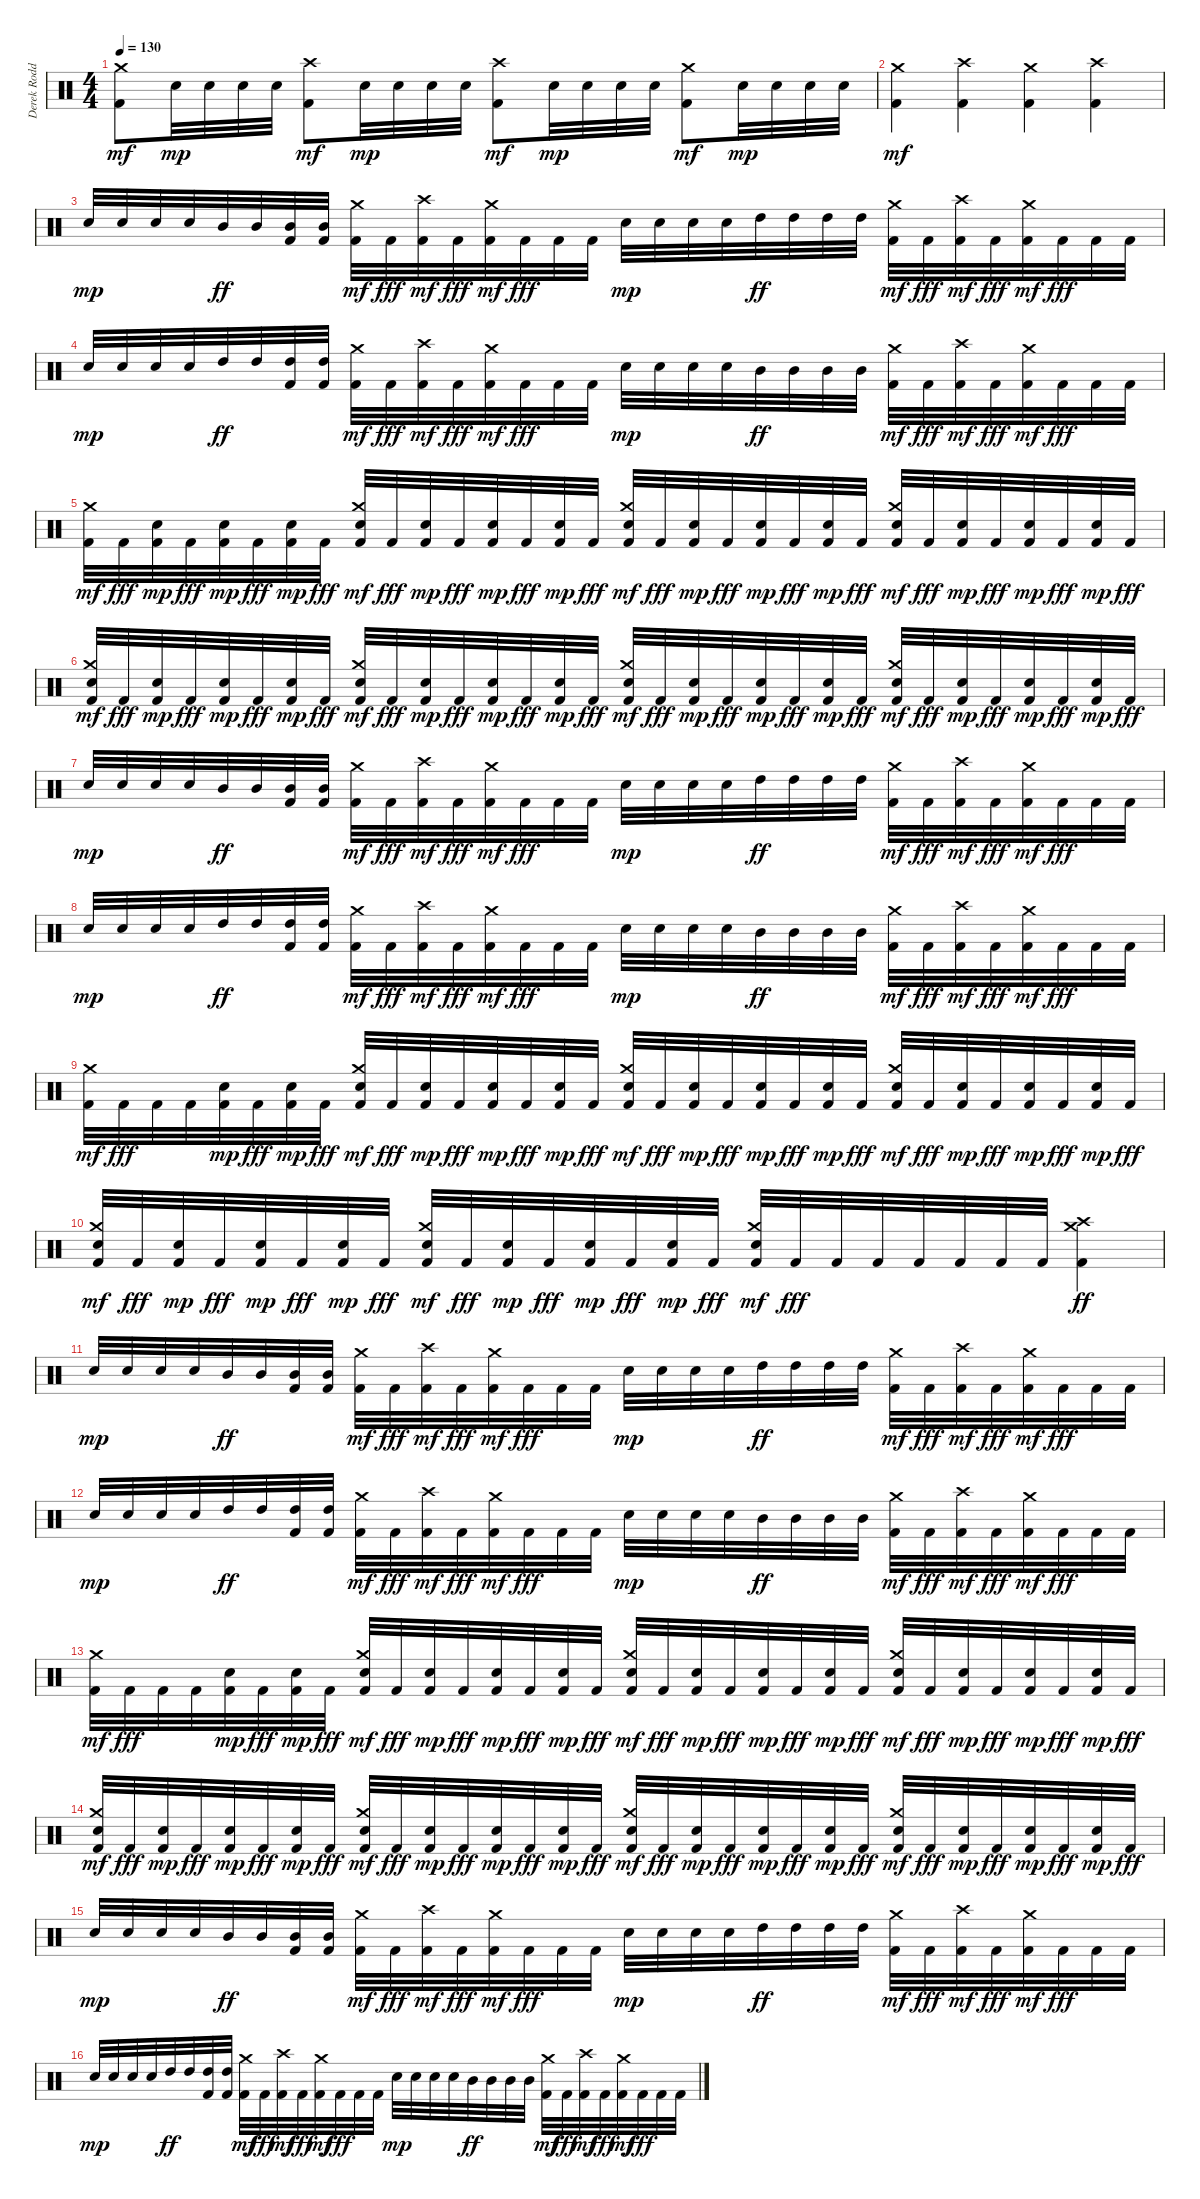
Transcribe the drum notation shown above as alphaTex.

\track ("Derek Roddy" "Derek Rodd") {instrument percussion}
\staff {score}
\articulation defaults
\ts (4 4)
\tempo 130
\clef neutral
\ks c
("Kick (hit) 2" "Crash medium (hit)").8{dy mf} "Electric Snare (hit)".32{dy mp} "Electric Snare (hit)".32 "Electric Snare (hit)".32 "Electric Snare (hit)".32 ("Kick (hit) 2" "Crash high (hit)").8{dy mf} "Electric Snare (hit)".32{dy mp} "Electric Snare (hit)".32 "Electric Snare (hit)".32 "Electric Snare (hit)".32 ("Kick (hit) 2" "Crash high (hit)").8{dy mf} "Electric Snare (hit)".32{dy mp} "Electric Snare (hit)".32 "Electric Snare (hit)".32 "Electric Snare (hit)".32 ("Kick (hit) 2" "Crash medium (hit)").8{dy mf} "Electric Snare (hit)".32{dy mp} "Electric Snare (hit)".32 "Electric Snare (hit)".32 "Electric Snare (hit)".32 |
("Kick (hit) 2" "Crash medium (hit)").4{dy mf} ("Kick (hit) 2" "Crash high (hit)").4 ("Kick (hit) 2" "Crash medium (hit)").4 ("Kick (hit) 2" "Crash high (hit)").4 |
"Electric Snare (hit)".32{dy mp} "Electric Snare (hit)".32 "Electric Snare (hit)".32 "Electric Snare (hit)".32 "Mid Tom (hit)".32{dy ff} "Mid Tom (hit)".32 ("Kick (hit) 2" "Mid Tom (hit)").32 ("Kick (hit) 2" "Mid Tom (hit)").32 ("Kick (hit) 2" "Crash medium (hit)").32{dy mf} "Kick (hit) 2".32{dy fff} ("Kick (hit) 2" "Crash high (hit)").32{dy mf} "Kick (hit) 2".32{dy fff} ("Kick (hit) 2" "Crash medium (hit)").32{dy mf} "Kick (hit) 2".32{dy fff} "Kick (hit) 2".32 "Kick (hit) 2".32 "Electric Snare (hit)".32{dy mp} "Electric Snare (hit)".32 "Electric Snare (hit)".32 "Electric Snare (hit)".32 "High Tom (hit)".32{dy ff} "High Tom (hit)".32 "High Tom (hit)".32 "High Tom (hit)".32 ("Kick (hit) 2" "Crash medium (hit)").32{dy mf} "Kick (hit) 2".32{dy fff} ("Kick (hit) 2" "Crash high (hit)").32{dy mf} "Kick (hit) 2".32{dy fff} ("Kick (hit) 2" "Crash medium (hit)").32{dy mf} "Kick (hit) 2".32{dy fff} "Kick (hit) 2".32 "Kick (hit) 2".32 |
"Electric Snare (hit)".32{dy mp} "Electric Snare (hit)".32 "Electric Snare (hit)".32 "Electric Snare (hit)".32 "High Tom (hit)".32{dy ff} "High Tom (hit)".32 ("Kick (hit) 2" "High Tom (hit)").32 ("Kick (hit) 2" "High Tom (hit)").32 ("Kick (hit) 2" "Crash medium (hit)").32{dy mf} "Kick (hit) 2".32{dy fff} ("Kick (hit) 2" "Crash high (hit)").32{dy mf} "Kick (hit) 2".32{dy fff} ("Kick (hit) 2" "Crash medium (hit)").32{dy mf} "Kick (hit) 2".32{dy fff} "Kick (hit) 2".32 "Kick (hit) 2".32 "Electric Snare (hit)".32{dy mp} "Electric Snare (hit)".32 "Electric Snare (hit)".32 "Electric Snare (hit)".32 "Mid Tom (hit)".32{dy ff} "Mid Tom (hit)".32 "Mid Tom (hit)".32 "Mid Tom (hit)".32 ("Kick (hit) 2" "Crash medium (hit)").32{dy mf} "Kick (hit) 2".32{dy fff} ("Kick (hit) 2" "Crash high (hit)").32{dy mf} "Kick (hit) 2".32{dy fff} ("Kick (hit) 2" "Crash medium (hit)").32{dy mf} "Kick (hit) 2".32{dy fff} "Kick (hit) 2".32 "Kick (hit) 2".32 |
("Kick (hit) 2" "Crash medium (hit)").32{dy mf} "Kick (hit) 2".32{dy fff} ("Kick (hit) 2" "Electric Snare (hit)").32{dy mp} "Kick (hit) 2".32{dy fff} ("Kick (hit) 2" "Electric Snare (hit)").32{dy mp} "Kick (hit) 2".32{dy fff} ("Kick (hit) 2" "Electric Snare (hit)").32{dy mp} "Kick (hit) 2".32{dy fff} ("Kick (hit) 2" "Electric Snare (hit)" "Crash medium (hit)").32{dy mf} "Kick (hit) 2".32{dy fff} ("Kick (hit) 2" "Electric Snare (hit)").32{dy mp} "Kick (hit) 2".32{dy fff} ("Kick (hit) 2" "Electric Snare (hit)").32{dy mp} "Kick (hit) 2".32{dy fff} ("Kick (hit) 2" "Electric Snare (hit)").32{dy mp} "Kick (hit) 2".32{dy fff} ("Kick (hit) 2" "Electric Snare (hit)" "Crash medium (hit)").32{dy mf} "Kick (hit) 2".32{dy fff} ("Kick (hit) 2" "Electric Snare (hit)").32{dy mp} "Kick (hit) 2".32{dy fff} ("Kick (hit) 2" "Electric Snare (hit)").32{dy mp} "Kick (hit) 2".32{dy fff} ("Kick (hit) 2" "Electric Snare (hit)").32{dy mp} "Kick (hit) 2".32{dy fff} ("Kick (hit) 2" "Electric Snare (hit)" "Crash medium (hit)").32{dy mf} "Kick (hit) 2".32{dy fff} ("Kick (hit) 2" "Electric Snare (hit)").32{dy mp} "Kick (hit) 2".32{dy fff} ("Kick (hit) 2" "Electric Snare (hit)").32{dy mp} "Kick (hit) 2".32{dy fff} ("Kick (hit) 2" "Electric Snare (hit)").32{dy mp} "Kick (hit) 2".32{dy fff} |
("Kick (hit) 2" "Electric Snare (hit)" "Crash medium (hit)").32{dy mf} "Kick (hit) 2".32{dy fff} ("Kick (hit) 2" "Electric Snare (hit)").32{dy mp} "Kick (hit) 2".32{dy fff} ("Kick (hit) 2" "Electric Snare (hit)").32{dy mp} "Kick (hit) 2".32{dy fff} ("Kick (hit) 2" "Electric Snare (hit)").32{dy mp} "Kick (hit) 2".32{dy fff} ("Kick (hit) 2" "Electric Snare (hit)" "Crash medium (hit)").32{dy mf} "Kick (hit) 2".32{dy fff} ("Kick (hit) 2" "Electric Snare (hit)").32{dy mp} "Kick (hit) 2".32{dy fff} ("Kick (hit) 2" "Electric Snare (hit)").32{dy mp} "Kick (hit) 2".32{dy fff} ("Kick (hit) 2" "Electric Snare (hit)").32{dy mp} "Kick (hit) 2".32{dy fff} ("Kick (hit) 2" "Electric Snare (hit)" "Crash medium (hit)").32{dy mf} "Kick (hit) 2".32{dy fff} ("Kick (hit) 2" "Electric Snare (hit)").32{dy mp} "Kick (hit) 2".32{dy fff} ("Kick (hit) 2" "Electric Snare (hit)").32{dy mp} "Kick (hit) 2".32{dy fff} ("Kick (hit) 2" "Electric Snare (hit)").32{dy mp} "Kick (hit) 2".32{dy fff} ("Kick (hit) 2" "Electric Snare (hit)" "Crash medium (hit)").32{dy mf} "Kick (hit) 2".32{dy fff} ("Kick (hit) 2" "Electric Snare (hit)").32{dy mp} "Kick (hit) 2".32{dy fff} ("Kick (hit) 2" "Electric Snare (hit)").32{dy mp} "Kick (hit) 2".32{dy fff} ("Kick (hit) 2" "Electric Snare (hit)").32{dy mp} "Kick (hit) 2".32{dy fff} |
"Electric Snare (hit)".32{dy mp} "Electric Snare (hit)".32 "Electric Snare (hit)".32 "Electric Snare (hit)".32 "Mid Tom (hit)".32{dy ff} "Mid Tom (hit)".32 ("Kick (hit) 2" "Mid Tom (hit)").32 ("Kick (hit) 2" "Mid Tom (hit)").32 ("Kick (hit) 2" "Crash medium (hit)").32{dy mf} "Kick (hit) 2".32{dy fff} ("Kick (hit) 2" "Crash high (hit)").32{dy mf} "Kick (hit) 2".32{dy fff} ("Kick (hit) 2" "Crash medium (hit)").32{dy mf} "Kick (hit) 2".32{dy fff} "Kick (hit) 2".32 "Kick (hit) 2".32 "Electric Snare (hit)".32{dy mp} "Electric Snare (hit)".32 "Electric Snare (hit)".32 "Electric Snare (hit)".32 "High Tom (hit)".32{dy ff} "High Tom (hit)".32 "High Tom (hit)".32 "High Tom (hit)".32 ("Kick (hit) 2" "Crash medium (hit)").32{dy mf} "Kick (hit) 2".32{dy fff} ("Kick (hit) 2" "Crash high (hit)").32{dy mf} "Kick (hit) 2".32{dy fff} ("Kick (hit) 2" "Crash medium (hit)").32{dy mf} "Kick (hit) 2".32{dy fff} "Kick (hit) 2".32 "Kick (hit) 2".32 |
"Electric Snare (hit)".32{dy mp} "Electric Snare (hit)".32 "Electric Snare (hit)".32 "Electric Snare (hit)".32 "High Tom (hit)".32{dy ff} "High Tom (hit)".32 ("Kick (hit) 2" "High Tom (hit)").32 ("Kick (hit) 2" "High Tom (hit)").32 ("Kick (hit) 2" "Crash medium (hit)").32{dy mf} "Kick (hit) 2".32{dy fff} ("Kick (hit) 2" "Crash high (hit)").32{dy mf} "Kick (hit) 2".32{dy fff} ("Kick (hit) 2" "Crash medium (hit)").32{dy mf} "Kick (hit) 2".32{dy fff} "Kick (hit) 2".32 "Kick (hit) 2".32 "Electric Snare (hit)".32{dy mp} "Electric Snare (hit)".32 "Electric Snare (hit)".32 "Electric Snare (hit)".32 "Mid Tom (hit)".32{dy ff} "Mid Tom (hit)".32 "Mid Tom (hit)".32 "Mid Tom (hit)".32 ("Kick (hit) 2" "Crash medium (hit)").32{dy mf} "Kick (hit) 2".32{dy fff} ("Kick (hit) 2" "Crash high (hit)").32{dy mf} "Kick (hit) 2".32{dy fff} ("Kick (hit) 2" "Crash medium (hit)").32{dy mf} "Kick (hit) 2".32{dy fff} "Kick (hit) 2".32 "Kick (hit) 2".32 |
("Kick (hit) 2" "Crash medium (hit)").32{dy mf} "Kick (hit) 2".32{dy fff} "Kick (hit) 2".32 "Kick (hit) 2".32 ("Kick (hit) 2" "Electric Snare (hit)").32{dy mp} "Kick (hit) 2".32{dy fff} ("Kick (hit) 2" "Electric Snare (hit)").32{dy mp} "Kick (hit) 2".32{dy fff} ("Kick (hit) 2" "Electric Snare (hit)" "Crash medium (hit)").32{dy mf} "Kick (hit) 2".32{dy fff} ("Kick (hit) 2" "Electric Snare (hit)").32{dy mp} "Kick (hit) 2".32{dy fff} ("Kick (hit) 2" "Electric Snare (hit)").32{dy mp} "Kick (hit) 2".32{dy fff} ("Kick (hit) 2" "Electric Snare (hit)").32{dy mp} "Kick (hit) 2".32{dy fff} ("Kick (hit) 2" "Electric Snare (hit)" "Crash medium (hit)").32{dy mf} "Kick (hit) 2".32{dy fff} ("Kick (hit) 2" "Electric Snare (hit)").32{dy mp} "Kick (hit) 2".32{dy fff} ("Kick (hit) 2" "Electric Snare (hit)").32{dy mp} "Kick (hit) 2".32{dy fff} ("Kick (hit) 2" "Electric Snare (hit)").32{dy mp} "Kick (hit) 2".32{dy fff} ("Kick (hit) 2" "Electric Snare (hit)" "Crash medium (hit)").32{dy mf} "Kick (hit) 2".32{dy fff} ("Kick (hit) 2" "Electric Snare (hit)").32{dy mp} "Kick (hit) 2".32{dy fff} ("Kick (hit) 2" "Electric Snare (hit)").32{dy mp} "Kick (hit) 2".32{dy fff} ("Kick (hit) 2" "Electric Snare (hit)").32{dy mp} "Kick (hit) 2".32{dy fff} |
("Kick (hit) 2" "Electric Snare (hit)" "Crash medium (hit)").32{dy mf} "Kick (hit) 2".32{dy fff} ("Kick (hit) 2" "Electric Snare (hit)").32{dy mp} "Kick (hit) 2".32{dy fff} ("Kick (hit) 2" "Electric Snare (hit)").32{dy mp} "Kick (hit) 2".32{dy fff} ("Kick (hit) 2" "Electric Snare (hit)").32{dy mp} "Kick (hit) 2".32{dy fff} ("Kick (hit) 2" "Electric Snare (hit)" "Crash medium (hit)").32{dy mf} "Kick (hit) 2".32{dy fff} ("Kick (hit) 2" "Electric Snare (hit)").32{dy mp} "Kick (hit) 2".32{dy fff} ("Kick (hit) 2" "Electric Snare (hit)").32{dy mp} "Kick (hit) 2".32{dy fff} ("Kick (hit) 2" "Electric Snare (hit)").32{dy mp} "Kick (hit) 2".32{dy fff} ("Kick (hit) 2" "Electric Snare (hit)" "Crash medium (hit)").32{dy mf} "Kick (hit) 2".32{dy fff} "Kick (hit) 2".32 "Kick (hit) 2".32 "Kick (hit) 2".32 "Kick (hit) 2".32 "Kick (hit) 2".32 "Kick (hit) 2".32 ("Kick (hit) 2" "Crash medium (hit)" "Crash high (hit)").4{dy ff} |
"Electric Snare (hit)".32{dy mp} "Electric Snare (hit)".32 "Electric Snare (hit)".32 "Electric Snare (hit)".32 "Mid Tom (hit)".32{dy ff} "Mid Tom (hit)".32 ("Kick (hit) 2" "Mid Tom (hit)").32 ("Kick (hit) 2" "Mid Tom (hit)").32 ("Kick (hit) 2" "Crash medium (hit)").32{dy mf} "Kick (hit) 2".32{dy fff} ("Kick (hit) 2" "Crash high (hit)").32{dy mf} "Kick (hit) 2".32{dy fff} ("Kick (hit) 2" "Crash medium (hit)").32{dy mf} "Kick (hit) 2".32{dy fff} "Kick (hit) 2".32 "Kick (hit) 2".32 "Electric Snare (hit)".32{dy mp} "Electric Snare (hit)".32 "Electric Snare (hit)".32 "Electric Snare (hit)".32 "High Tom (hit)".32{dy ff} "High Tom (hit)".32 "High Tom (hit)".32 "High Tom (hit)".32 ("Kick (hit) 2" "Crash medium (hit)").32{dy mf} "Kick (hit) 2".32{dy fff} ("Kick (hit) 2" "Crash high (hit)").32{dy mf} "Kick (hit) 2".32{dy fff} ("Kick (hit) 2" "Crash medium (hit)").32{dy mf} "Kick (hit) 2".32{dy fff} "Kick (hit) 2".32 "Kick (hit) 2".32 |
"Electric Snare (hit)".32{dy mp} "Electric Snare (hit)".32 "Electric Snare (hit)".32 "Electric Snare (hit)".32 "High Tom (hit)".32{dy ff} "High Tom (hit)".32 ("Kick (hit) 2" "High Tom (hit)").32 ("Kick (hit) 2" "High Tom (hit)").32 ("Kick (hit) 2" "Crash medium (hit)").32{dy mf} "Kick (hit) 2".32{dy fff} ("Kick (hit) 2" "Crash high (hit)").32{dy mf} "Kick (hit) 2".32{dy fff} ("Kick (hit) 2" "Crash medium (hit)").32{dy mf} "Kick (hit) 2".32{dy fff} "Kick (hit) 2".32 "Kick (hit) 2".32 "Electric Snare (hit)".32{dy mp} "Electric Snare (hit)".32 "Electric Snare (hit)".32 "Electric Snare (hit)".32 "Mid Tom (hit)".32{dy ff} "Mid Tom (hit)".32 "Mid Tom (hit)".32 "Mid Tom (hit)".32 ("Kick (hit) 2" "Crash medium (hit)").32{dy mf} "Kick (hit) 2".32{dy fff} ("Kick (hit) 2" "Crash high (hit)").32{dy mf} "Kick (hit) 2".32{dy fff} ("Kick (hit) 2" "Crash medium (hit)").32{dy mf} "Kick (hit) 2".32{dy fff} "Kick (hit) 2".32 "Kick (hit) 2".32 |
("Kick (hit) 2" "Crash medium (hit)").32{dy mf} "Kick (hit) 2".32{dy fff} "Kick (hit) 2".32 "Kick (hit) 2".32 ("Kick (hit) 2" "Electric Snare (hit)").32{dy mp} "Kick (hit) 2".32{dy fff} ("Kick (hit) 2" "Electric Snare (hit)").32{dy mp} "Kick (hit) 2".32{dy fff} ("Kick (hit) 2" "Electric Snare (hit)" "Crash medium (hit)").32{dy mf} "Kick (hit) 2".32{dy fff} ("Kick (hit) 2" "Electric Snare (hit)").32{dy mp} "Kick (hit) 2".32{dy fff} ("Kick (hit) 2" "Electric Snare (hit)").32{dy mp} "Kick (hit) 2".32{dy fff} ("Kick (hit) 2" "Electric Snare (hit)").32{dy mp} "Kick (hit) 2".32{dy fff} ("Kick (hit) 2" "Electric Snare (hit)" "Crash medium (hit)").32{dy mf} "Kick (hit) 2".32{dy fff} ("Kick (hit) 2" "Electric Snare (hit)").32{dy mp} "Kick (hit) 2".32{dy fff} ("Kick (hit) 2" "Electric Snare (hit)").32{dy mp} "Kick (hit) 2".32{dy fff} ("Kick (hit) 2" "Electric Snare (hit)").32{dy mp} "Kick (hit) 2".32{dy fff} ("Kick (hit) 2" "Electric Snare (hit)" "Crash medium (hit)").32{dy mf} "Kick (hit) 2".32{dy fff} ("Kick (hit) 2" "Electric Snare (hit)").32{dy mp} "Kick (hit) 2".32{dy fff} ("Kick (hit) 2" "Electric Snare (hit)").32{dy mp} "Kick (hit) 2".32{dy fff} ("Kick (hit) 2" "Electric Snare (hit)").32{dy mp} "Kick (hit) 2".32{dy fff} |
("Kick (hit) 2" "Electric Snare (hit)" "Crash medium (hit)").32{dy mf} "Kick (hit) 2".32{dy fff} ("Kick (hit) 2" "Electric Snare (hit)").32{dy mp} "Kick (hit) 2".32{dy fff} ("Kick (hit) 2" "Electric Snare (hit)").32{dy mp} "Kick (hit) 2".32{dy fff} ("Kick (hit) 2" "Electric Snare (hit)").32{dy mp} "Kick (hit) 2".32{dy fff} ("Kick (hit) 2" "Electric Snare (hit)" "Crash medium (hit)").32{dy mf} "Kick (hit) 2".32{dy fff} ("Kick (hit) 2" "Electric Snare (hit)").32{dy mp} "Kick (hit) 2".32{dy fff} ("Kick (hit) 2" "Electric Snare (hit)").32{dy mp} "Kick (hit) 2".32{dy fff} ("Kick (hit) 2" "Electric Snare (hit)").32{dy mp} "Kick (hit) 2".32{dy fff} ("Kick (hit) 2" "Electric Snare (hit)" "Crash medium (hit)").32{dy mf} "Kick (hit) 2".32{dy fff} ("Kick (hit) 2" "Electric Snare (hit)").32{dy mp} "Kick (hit) 2".32{dy fff} ("Kick (hit) 2" "Electric Snare (hit)").32{dy mp} "Kick (hit) 2".32{dy fff} ("Kick (hit) 2" "Electric Snare (hit)").32{dy mp} "Kick (hit) 2".32{dy fff} ("Kick (hit) 2" "Electric Snare (hit)" "Crash medium (hit)").32{dy mf} "Kick (hit) 2".32{dy fff} ("Kick (hit) 2" "Electric Snare (hit)").32{dy mp} "Kick (hit) 2".32{dy fff} ("Kick (hit) 2" "Electric Snare (hit)").32{dy mp} "Kick (hit) 2".32{dy fff} ("Kick (hit) 2" "Electric Snare (hit)").32{dy mp} "Kick (hit) 2".32{dy fff} |
"Electric Snare (hit)".32{dy mp} "Electric Snare (hit)".32 "Electric Snare (hit)".32 "Electric Snare (hit)".32 "Mid Tom (hit)".32{dy ff} "Mid Tom (hit)".32 ("Kick (hit) 2" "Mid Tom (hit)").32 ("Kick (hit) 2" "Mid Tom (hit)").32 ("Kick (hit) 2" "Crash medium (hit)").32{dy mf} "Kick (hit) 2".32{dy fff} ("Kick (hit) 2" "Crash high (hit)").32{dy mf} "Kick (hit) 2".32{dy fff} ("Kick (hit) 2" "Crash medium (hit)").32{dy mf} "Kick (hit) 2".32{dy fff} "Kick (hit) 2".32 "Kick (hit) 2".32 "Electric Snare (hit)".32{dy mp} "Electric Snare (hit)".32 "Electric Snare (hit)".32 "Electric Snare (hit)".32 "High Tom (hit)".32{dy ff} "High Tom (hit)".32 "High Tom (hit)".32 "High Tom (hit)".32 ("Kick (hit) 2" "Crash medium (hit)").32{dy mf} "Kick (hit) 2".32{dy fff} ("Kick (hit) 2" "Crash high (hit)").32{dy mf} "Kick (hit) 2".32{dy fff} ("Kick (hit) 2" "Crash medium (hit)").32{dy mf} "Kick (hit) 2".32{dy fff} "Kick (hit) 2".32 "Kick (hit) 2".32 |
"Electric Snare (hit)".32{dy mp} "Electric Snare (hit)".32 "Electric Snare (hit)".32 "Electric Snare (hit)".32 "High Tom (hit)".32{dy ff} "High Tom (hit)".32 ("Kick (hit) 2" "High Tom (hit)").32 ("Kick (hit) 2" "High Tom (hit)").32 ("Kick (hit) 2" "Crash medium (hit)").32{dy mf} "Kick (hit) 2".32{dy fff} ("Kick (hit) 2" "Crash high (hit)").32{dy mf} "Kick (hit) 2".32{dy fff} ("Kick (hit) 2" "Crash medium (hit)").32{dy mf} "Kick (hit) 2".32{dy fff} "Kick (hit) 2".32 "Kick (hit) 2".32 "Electric Snare (hit)".32{dy mp} "Electric Snare (hit)".32 "Electric Snare (hit)".32 "Electric Snare (hit)".32 "Mid Tom (hit)".32{dy ff} "Mid Tom (hit)".32 "Mid Tom (hit)".32 "Mid Tom (hit)".32 ("Kick (hit) 2" "Crash medium (hit)").32{dy mf} "Kick (hit) 2".32{dy fff} ("Kick (hit) 2" "Crash high (hit)").32{dy mf} "Kick (hit) 2".32{dy fff} ("Kick (hit) 2" "Crash medium (hit)").32{dy mf} "Kick (hit) 2".32{dy fff} "Kick (hit) 2".32 "Kick (hit) 2".32
